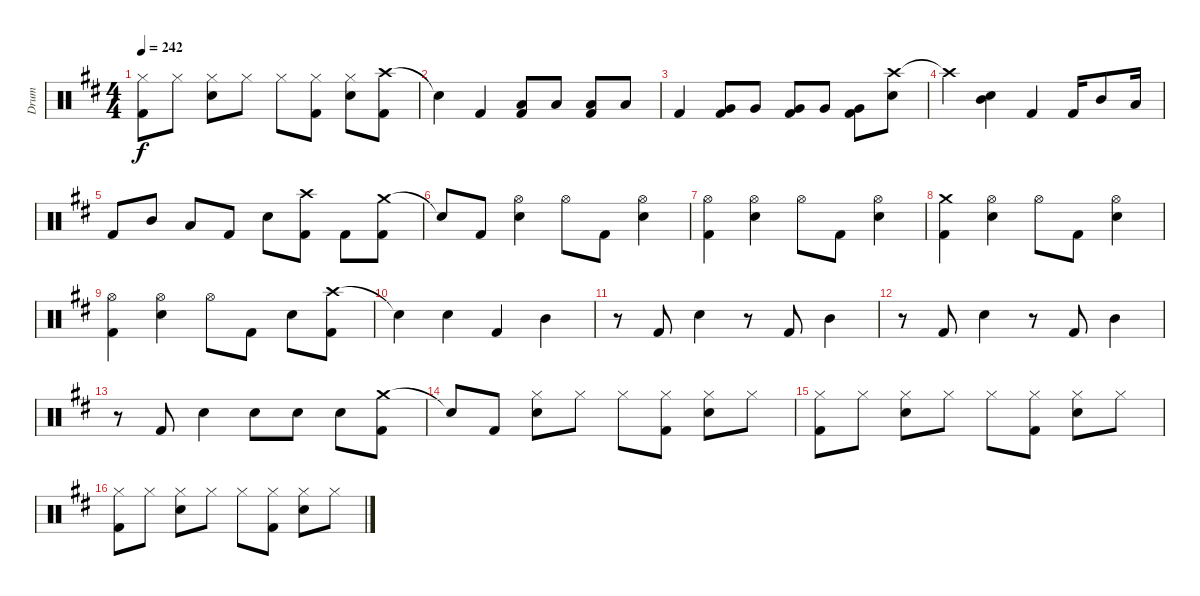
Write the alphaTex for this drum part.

\track ("Drum" "Drum") {instrument percussion}
\staff {score}
\articulation defaults
\ts (4 4)
\tempo 242
\clef neutral
\ks d
("Hi-Hat (closed)" "Kick (hit) 2").8{dy f} "Hi-Hat (closed)".8 ("Hi-Hat (closed)" "Snare (hit) 2").8 "Hi-Hat (closed)".8 "Hi-Hat (closed)".8 ("Hi-Hat (closed)" "Kick (hit) 2").8 ("Hi-Hat (closed)" "Snare (hit) 2").8 ("Crash high (hit)" "Kick (hit) 2").8 |
"Snare (hit)"{t}.4 "Kick (hit) 2".4 ("Low Tom (hit)" "Kick (hit) 2").8 "Low Tom (hit)".8 ("Low Tom (hit)" "Kick (hit) 2").8 "Low Tom (hit)".8 |
"Kick (hit) 2".4 ("Very Low Tom (hit)" "Kick (hit) 2").8 "Very Low Tom (hit)".8 ("Very Low Tom (hit)" "Kick (hit) 2").8 "Very Low Tom (hit)".8 ("Very Low Tom (hit)" "Kick (hit) 2").8 ("Crash high (hit)" "Snare (hit) 2").8 |
"Crash high (hit)"{t}.4 ("Mid Tom (hit)" "Snare (hit) 2").4 "Kick (hit) 2".4 "Kick (hit) 2".16 "Mid Tom (hit)".8 "Low Tom (hit)".16 |
"Kick (hit) 2".8 "Mid Tom (hit)".8 "Low Tom (hit)".8 "Kick (hit) 2".8 "Snare (hit) 2".8 ("Crash high (hit)" "Kick (hit) 2").8 "Kick (hit) 2".8 ("Crash medium (hit)" "Kick (hit) 2").8 |
"Snare (hit)"{t}.8 "Kick (hit) 2".8 ("Hi-Hat (open)" "Snare (hit) 2").4 "Hi-Hat (open)".8 "Kick (hit) 2".8 ("Hi-Hat (open)" "Snare (hit) 2").4 |
("Hi-Hat (open)" "Kick (hit) 2").4 ("Hi-Hat (open)" "Snare (hit) 2").4 "Hi-Hat (open)".8 "Kick (hit) 2".8 ("Hi-Hat (open)" "Snare (hit) 2").4 |
("Crash medium (hit)" "Kick (hit) 2").4 ("Hi-Hat (open)" "Snare (hit) 2").4 "Hi-Hat (open)".8 "Kick (hit) 2".8 ("Hi-Hat (open)" "Snare (hit) 2").4 |
("Hi-Hat (open)" "Kick (hit) 2").4 ("Hi-Hat (open)" "Snare (hit) 2").4 "Hi-Hat (open)".8 "Kick (hit) 2".8 "Snare (hit) 2".8 ("Crash high (hit)" "Kick (hit) 2").8 |
"Snare (hit)"{t}.4 "Snare (hit) 2".4 "Kick (hit) 2".4 "Mid Tom (hit)".4 |
r.8 "Kick (hit) 2".8 "Snare (hit) 2".4 r.8 "Kick (hit) 2".8 "Mid Tom (hit)".4 |
r.8 "Kick (hit) 2".8 "Snare (hit) 2".4 r.8 "Kick (hit) 2".8 "Mid Tom (hit)".4 |
r.8 "Kick (hit) 2".8 "Snare (hit) 2".4 "Snare (hit) 2".8 "Snare (hit) 2".8 "Snare (hit) 2".8 ("Crash medium (hit)" "Kick (hit) 2").8 |
"Snare (hit)"{t}.8 "Kick (hit) 2".8 ("Hi-Hat (closed)" "Snare (hit) 2").8 "Hi-Hat (closed)".8 "Hi-Hat (closed)".8 ("Hi-Hat (closed)" "Kick (hit) 2").8 ("Hi-Hat (closed)" "Snare (hit) 2").8 "Hi-Hat (closed)".8 |
("Hi-Hat (closed)" "Kick (hit) 2").8 "Hi-Hat (closed)".8 ("Hi-Hat (closed)" "Snare (hit) 2").8 "Hi-Hat (closed)".8 "Hi-Hat (closed)".8 ("Hi-Hat (closed)" "Kick (hit) 2").8 ("Hi-Hat (closed)" "Snare (hit) 2").8 "Hi-Hat (closed)".8 |
("Hi-Hat (closed)" "Kick (hit) 2").8 "Hi-Hat (closed)".8 ("Hi-Hat (closed)" "Snare (hit) 2").8 "Hi-Hat (closed)".8 "Hi-Hat (closed)".8 ("Hi-Hat (closed)" "Kick (hit) 2").8 ("Hi-Hat (closed)" "Snare (hit) 2").8 "Hi-Hat (closed)".8
